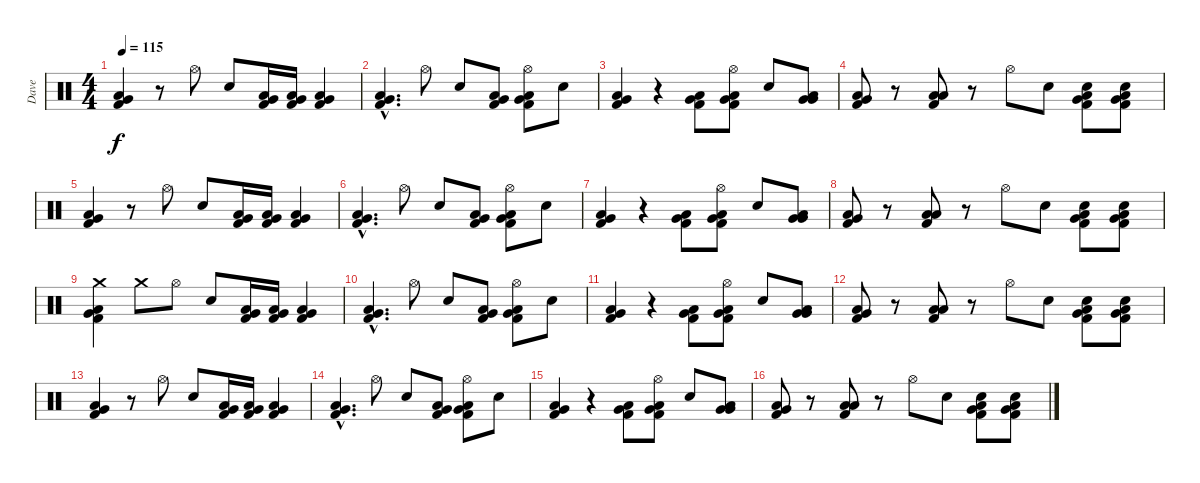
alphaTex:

\track ("Dave" "Dave") {instrument percussion}
\staff {score}
\articulation defaults
\ts (4 4)
\tempo 115
\clef neutral
\ks c
("Low Floor Tom (hit)" "Very Low Tom (hit)" "Kick (hit) 2").4{dy f} r.8 "Hi-Hat (open)".8 "Electric Snare (hit)".8 ("Very Low Tom (hit)" "Kick (hit) 2" "Low Floor Tom (hit)").16 ("Very Low Tom (hit)" "Kick (hit) 2" "Low Floor Tom (hit)").16 ("Very Low Tom (hit)" "Kick (hit) 2" "Low Floor Tom (hit)").4 |
("Very Low Tom (hit)"{hac} "Kick (hit) 2"{hac} "Low Floor Tom (hit)"{hac}).4{d} "Hi-Hat (open)".8 "Electric Snare (hit)".8 ("Low Floor Tom (hit)" "Very Low Tom (hit)" "Kick (hit) 2").8 ("Hi-Hat (open)" "Low Floor Tom (hit)" "Very Low Tom (hit)" "Kick (hit) 2").8 "Electric Snare (hit)".8 |
("Very Low Tom (hit)" "Kick (hit) 2" "Low Floor Tom (hit)").4 r.4 ("Very Low Tom (hit)" "Low Floor Tom (hit)" "Kick (hit) 2").8 ("Hi-Hat (open)" "Very Low Tom (hit)" "Kick (hit) 2" "Low Floor Tom (hit)").8 "Electric Snare (hit)".8 ("Very Low Tom (hit)" "Very Low Tom (hit)" "Low Floor Tom (hit)").8 |
("Low Floor Tom (hit)" "Very Low Tom (hit)" "Kick (hit) 2").8 r.8 ("Low Floor Tom (hit)" "Low Floor Tom (hit)" "Kick (hit) 2").8 r.8 "Hi-Hat (open)".8 "Electric Snare (hit)".8 ("Electric Snare (hit)" "Very Low Tom (hit)" "Low Floor Tom (hit)" "Kick (hit) 2").8 ("Electric Snare (hit)" "Very Low Tom (hit)" "Low Floor Tom (hit)" "Kick (hit) 2").8 |
("Low Floor Tom (hit)" "Very Low Tom (hit)" "Kick (hit) 2").4 r.8 "Hi-Hat (open)".8 "Electric Snare (hit)".8 ("Very Low Tom (hit)" "Kick (hit) 2" "Low Floor Tom (hit)").16 ("Very Low Tom (hit)" "Kick (hit) 2" "Low Floor Tom (hit)").16 ("Very Low Tom (hit)" "Kick (hit) 2" "Low Floor Tom (hit)").4 |
("Very Low Tom (hit)"{hac} "Kick (hit) 2"{hac} "Low Floor Tom (hit)"{hac}).4{d} "Hi-Hat (open)".8 "Electric Snare (hit)".8 ("Low Floor Tom (hit)" "Very Low Tom (hit)" "Kick (hit) 2").8 ("Hi-Hat (open)" "Low Floor Tom (hit)" "Very Low Tom (hit)" "Kick (hit) 2").8 "Electric Snare (hit)".8 |
("Very Low Tom (hit)" "Kick (hit) 2" "Low Floor Tom (hit)").4 r.4 ("Very Low Tom (hit)" "Low Floor Tom (hit)" "Kick (hit) 2").8 ("Hi-Hat (open)" "Very Low Tom (hit)" "Kick (hit) 2" "Low Floor Tom (hit)").8 "Electric Snare (hit)".8 ("Very Low Tom (hit)" "Very Low Tom (hit)" "Low Floor Tom (hit)").8 |
("Low Floor Tom (hit)" "Very Low Tom (hit)" "Kick (hit) 2").8 r.8 ("Low Floor Tom (hit)" "Low Floor Tom (hit)" "Kick (hit) 2").8 r.8 "Hi-Hat (open)".8 "Electric Snare (hit)".8 ("Electric Snare (hit)" "Very Low Tom (hit)" "Low Floor Tom (hit)" "Kick (hit) 2").8 ("Electric Snare (hit)" "Very Low Tom (hit)" "Low Floor Tom (hit)" "Kick (hit) 2").8 |
("Crash medium (hit)" "Low Floor Tom (hit)" "Very Low Tom (hit)" "Kick (hit) 2").4 "Crash medium (hit)".8 "Hi-Hat (open)".8 "Electric Snare (hit)".8 ("Very Low Tom (hit)" "Kick (hit) 2" "Low Floor Tom (hit)").16 ("Very Low Tom (hit)" "Kick (hit) 2" "Low Floor Tom (hit)").16 ("Very Low Tom (hit)" "Kick (hit) 2" "Low Floor Tom (hit)").4 |
("Very Low Tom (hit)"{hac} "Kick (hit) 2"{hac} "Low Floor Tom (hit)"{hac}).4{d} "Hi-Hat (open)".8 "Electric Snare (hit)".8 ("Low Floor Tom (hit)" "Very Low Tom (hit)" "Kick (hit) 2").8 ("Hi-Hat (open)" "Low Floor Tom (hit)" "Very Low Tom (hit)" "Kick (hit) 2").8 "Electric Snare (hit)".8 |
("Very Low Tom (hit)" "Kick (hit) 2" "Low Floor Tom (hit)").4 r.4 ("Very Low Tom (hit)" "Low Floor Tom (hit)" "Kick (hit) 2").8 ("Hi-Hat (open)" "Very Low Tom (hit)" "Kick (hit) 2" "Low Floor Tom (hit)").8 "Electric Snare (hit)".8 ("Very Low Tom (hit)" "Very Low Tom (hit)" "Low Floor Tom (hit)").8 |
("Low Floor Tom (hit)" "Very Low Tom (hit)" "Kick (hit) 2").8 r.8 ("Low Floor Tom (hit)" "Low Floor Tom (hit)" "Kick (hit) 2").8 r.8 "Hi-Hat (open)".8 "Electric Snare (hit)".8 ("Electric Snare (hit)" "Very Low Tom (hit)" "Low Floor Tom (hit)" "Kick (hit) 2").8 ("Electric Snare (hit)" "Very Low Tom (hit)" "Low Floor Tom (hit)" "Kick (hit) 2").8 |
("Low Floor Tom (hit)" "Very Low Tom (hit)" "Kick (hit) 2").4 r.8 "Hi-Hat (open)".8 "Electric Snare (hit)".8 ("Very Low Tom (hit)" "Kick (hit) 2" "Low Floor Tom (hit)").16 ("Very Low Tom (hit)" "Kick (hit) 2" "Low Floor Tom (hit)").16 ("Very Low Tom (hit)" "Kick (hit) 2" "Low Floor Tom (hit)").4 |
("Very Low Tom (hit)"{hac} "Kick (hit) 2"{hac} "Low Floor Tom (hit)"{hac}).4{d} "Hi-Hat (open)".8 "Electric Snare (hit)".8 ("Low Floor Tom (hit)" "Very Low Tom (hit)" "Kick (hit) 2").8 ("Hi-Hat (open)" "Low Floor Tom (hit)" "Very Low Tom (hit)" "Kick (hit) 2").8 "Electric Snare (hit)".8 |
("Very Low Tom (hit)" "Kick (hit) 2" "Low Floor Tom (hit)").4 r.4 ("Very Low Tom (hit)" "Low Floor Tom (hit)" "Kick (hit) 2").8 ("Hi-Hat (open)" "Very Low Tom (hit)" "Kick (hit) 2" "Low Floor Tom (hit)").8 "Electric Snare (hit)".8 ("Very Low Tom (hit)" "Very Low Tom (hit)" "Low Floor Tom (hit)").8 |
("Low Floor Tom (hit)" "Very Low Tom (hit)" "Kick (hit) 2").8 r.8 ("Low Floor Tom (hit)" "Low Floor Tom (hit)" "Kick (hit) 2").8 r.8 "Hi-Hat (open)".8 "Electric Snare (hit)".8 ("Electric Snare (hit)" "Very Low Tom (hit)" "Low Floor Tom (hit)" "Kick (hit) 2").8 ("Electric Snare (hit)" "Very Low Tom (hit)" "Low Floor Tom (hit)" "Kick (hit) 2").8
